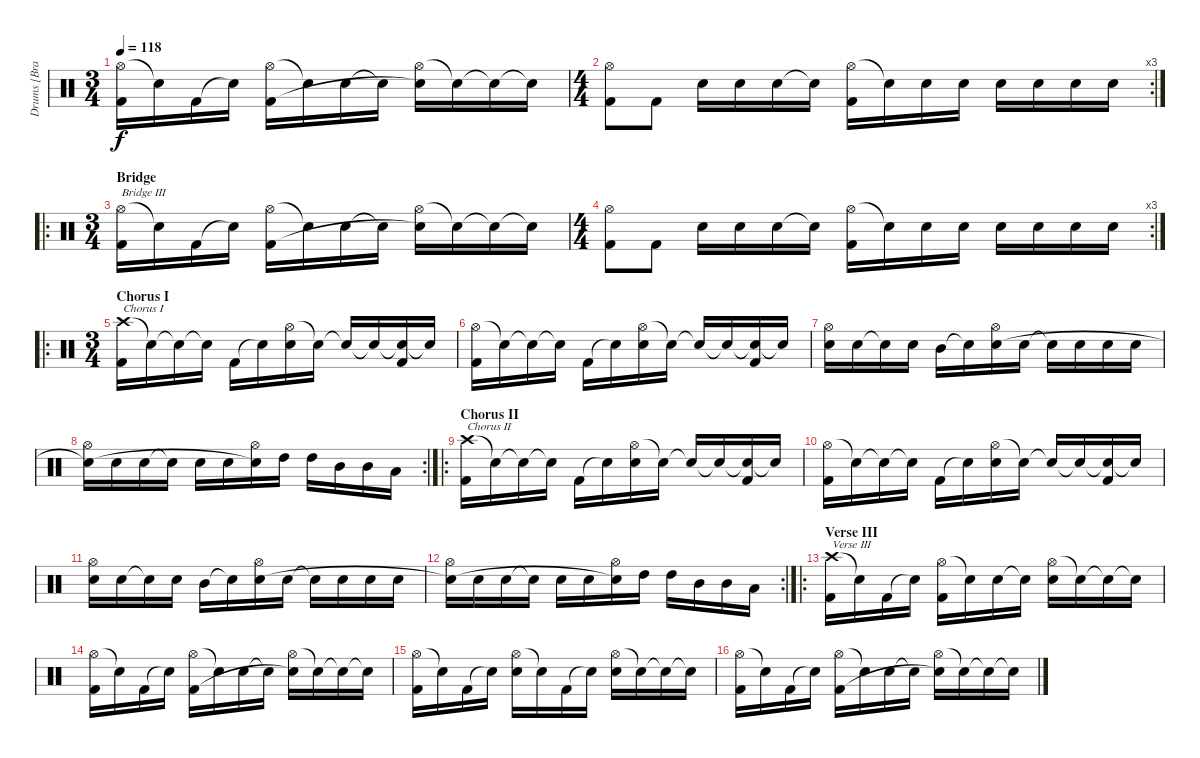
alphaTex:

\track ("Drums [Brann Dailor]" "Drums [Bra") {instrument percussion}
\staff {score}
\articulation defaults
\ts (3 4)
\tempo 118
\clef neutral
\ks c
("Hi-Hat (open)" "Kick (hit) 2").16{dy f} "Snare (hit)"{t}.16 "Kick (hit) 2".16 "Snare (hit)"{t}.16 ("Hi-Hat (open)" "Kick (hit) 2").16 "Snare (hit)"{t}.16 "Electric Snare (hit)".16 "Snare (hit)"{t}.16 ("Hi-Hat (open)" "Electric Snare (hit)"{t}).16 "Snare (hit)"{t}.16 "Snare (hit)"{t}.16 "Snare (hit)"{t}.16 |
\rc 3
\ts (4 4)
("Hi-Hat (open)" "Kick (hit) 2").8 "Kick (hit) 2".8 "Electric Snare (hit)".16 "Electric Snare (hit)".16 "Electric Snare (hit)".16 "Snare (hit)"{t}.16 ("Hi-Hat (open)" "Kick (hit) 2").16 "Snare (hit)"{t}.16 "Electric Snare (hit)".16 "Electric Snare (hit)".16 "Electric Snare (hit)".16 "Electric Snare (hit)".16 "Electric Snare (hit)".16 "Electric Snare (hit)".16 |
\ro
\ts (3 4)
\section ("" "Bridge")
("Hi-Hat (open)" "Kick (hit) 2").16{txt "Bridge III"} "Snare (hit)"{t}.16 "Kick (hit) 2".16 "Snare (hit)"{t}.16 ("Hi-Hat (open)" "Kick (hit) 2").16 "Snare (hit)"{t}.16 "Electric Snare (hit)".16 "Snare (hit)"{t}.16 ("Hi-Hat (open)" "Electric Snare (hit)"{t}).16 "Snare (hit)"{t}.16 "Snare (hit)"{t}.16 "Snare (hit)"{t}.16 |
\rc 3
\ts (4 4)
("Hi-Hat (open)" "Kick (hit) 2").8 "Kick (hit) 2".8 "Electric Snare (hit)".16 "Electric Snare (hit)".16 "Electric Snare (hit)".16 "Snare (hit)"{t}.16 ("Hi-Hat (open)" "Kick (hit) 2").16 "Snare (hit)"{t}.16 "Electric Snare (hit)".16 "Electric Snare (hit)".16 "Electric Snare (hit)".16 "Electric Snare (hit)".16 "Electric Snare (hit)".16 "Electric Snare (hit)".16 |
\ro
\ts (3 4)
\section ("" "Chorus I")
("Crash high (hit)" "Kick (hit) 2").16{txt "Chorus I"} "Snare (hit)"{t}.16 "Snare (hit)"{t}.16 "Snare (hit)"{t}.16 "Kick (hit) 2".16 "Snare (hit)"{t}.16 ("Hi-Hat (open)" "Electric Snare (hit)").16 "Snare (hit)"{t}.16 "Snare (hit)"{t}.16 "Snare (hit)"{t}.16 ("Snare (hit)"{t} "Kick (hit) 2").16 "Snare (hit)"{t}.16 |
("Hi-Hat (open)" "Kick (hit) 2").16 "Snare (hit)"{t}.16 "Snare (hit)"{t}.16 "Snare (hit)"{t}.16 "Kick (hit) 2".16 "Snare (hit)"{t}.16 ("Hi-Hat (open)" "Electric Snare (hit)").16 "Snare (hit)"{t}.16 "Snare (hit)"{t}.16 "Snare (hit)"{t}.16 ("Snare (hit)"{t} "Kick (hit) 2").16 "Snare (hit)"{t}.16 |
("Hi-Hat (open)" "Electric Snare (hit)").16 "Electric Snare (hit)".16 "Snare (hit)"{t}.16 "Snare (hit)".16 "Mid Tom (hit)".16 "Snare (hit)"{t}.16 ("Hi-Hat (open)" "Electric Snare (hit)").16 "Electric Snare (hit)".16 "Snare (hit)"{t}.16 "Electric Snare (hit)".16 "Electric Snare (hit)".16 "Electric Snare (hit)".16 |
\rc 2
("Hi-Hat (open)" "Snare (hit)"{t}).16 "Electric Snare (hit)".16 "Electric Snare (hit)".16 "Snare (hit)"{t}.16 "Electric Snare (hit)".16 "Electric Snare (hit)".16 ("Hi-Hat (open)" "Snare (hit)"{t}).16 "High Tom (hit)".16 "High Tom (hit)".16 "Mid Tom (hit)".16 "Mid Tom (hit)".16 "Low Tom (hit)".16 |
\ro
\section ("" "Chorus II")
("Crash high (hit)" "Kick (hit) 2").16{txt "Chorus II"} "Snare (hit)"{t}.16 "Snare (hit)"{t}.16 "Snare (hit)"{t}.16 "Kick (hit) 2".16 "Snare (hit)"{t}.16 ("Hi-Hat (open)" "Electric Snare (hit)").16 "Snare (hit)"{t}.16 "Snare (hit)"{t}.16 "Snare (hit)"{t}.16 ("Snare (hit)"{t} "Kick (hit) 2").16 "Snare (hit)"{t}.16 |
("Hi-Hat (open)" "Kick (hit) 2").16 "Snare (hit)"{t}.16 "Snare (hit)"{t}.16 "Snare (hit)"{t}.16 "Kick (hit) 2".16 "Snare (hit)"{t}.16 ("Hi-Hat (open)" "Electric Snare (hit)").16 "Snare (hit)"{t}.16 "Snare (hit)"{t}.16 "Snare (hit)"{t}.16 ("Snare (hit)"{t} "Kick (hit) 2").16 "Snare (hit)"{t}.16 |
("Hi-Hat (open)" "Electric Snare (hit)").16 "Electric Snare (hit)".16 "Snare (hit)"{t}.16 "Snare (hit)".16 "Mid Tom (hit)".16 "Snare (hit)"{t}.16 ("Hi-Hat (open)" "Electric Snare (hit)").16 "Electric Snare (hit)".16 "Snare (hit)"{t}.16 "Electric Snare (hit)".16 "Electric Snare (hit)".16 "Electric Snare (hit)".16 |
\rc 2
("Hi-Hat (open)" "Snare (hit)"{t}).16 "Electric Snare (hit)".16 "Electric Snare (hit)".16 "Snare (hit)"{t}.16 "Electric Snare (hit)".16 "Electric Snare (hit)".16 ("Hi-Hat (open)" "Snare (hit)"{t}).16 "High Tom (hit)".16 "High Tom (hit)".16 "Mid Tom (hit)".16 "Mid Tom (hit)".16 "Low Tom (hit)".16 |
\ro
\section ("" "Verse III")
("Crash high (hit)" "Kick (hit) 2").16{txt "Verse III"} "Snare (hit)"{t}.16 "Kick (hit) 2".16 "Snare (hit)"{t}.16 ("Hi-Hat (open)" "Kick (hit) 2").16 "Snare (hit)"{t}.16 "Electric Snare (hit)".16 "Snare (hit)"{t}.16 ("Hi-Hat (open)" "Electric Snare (hit)").16 "Snare (hit)"{t}.16 "Snare (hit)"{t}.16 "Snare (hit)"{t}.16 |
("Hi-Hat (open)" "Kick (hit) 2").16 "Snare (hit)"{t}.16 "Kick (hit) 2".16 "Snare (hit)"{t}.16 ("Hi-Hat (open)" "Kick (hit) 2").16 "Snare (hit)"{t}.16 "Electric Snare (hit)".16 "Snare (hit)"{t}.16 ("Hi-Hat (open)" "Electric Snare (hit)"{t}).16 "Snare (hit)"{t}.16 "Snare (hit)"{t}.16 "Snare (hit)"{t}.16 |
("Hi-Hat (open)" "Kick (hit) 2").16 "Snare (hit)"{t}.16 "Kick (hit) 2".16 "Snare (hit)"{t}.16 ("Hi-Hat (open)" "Electric Snare (hit)").16 "Snare (hit)"{t}.16 "Kick (hit) 2".16 "Snare (hit)"{t}.16 ("Hi-Hat (open)" "Electric Snare (hit)").16 "Snare (hit)"{t}.16 "Snare (hit)"{t}.16 "Snare (hit)"{t}.16 |
("Hi-Hat (open)" "Kick (hit) 2").16 "Snare (hit)"{t}.16 "Kick (hit) 2".16 "Snare (hit)"{t}.16 ("Hi-Hat (open)" "Kick (hit) 2").16 "Snare (hit)"{t}.16 "Electric Snare (hit)".16 "Snare (hit)"{t}.16 ("Hi-Hat (open)" "Electric Snare (hit)"{t}).16 "Snare (hit)"{t}.16 "Snare (hit)"{t}.16 "Snare (hit)"{t}.16
